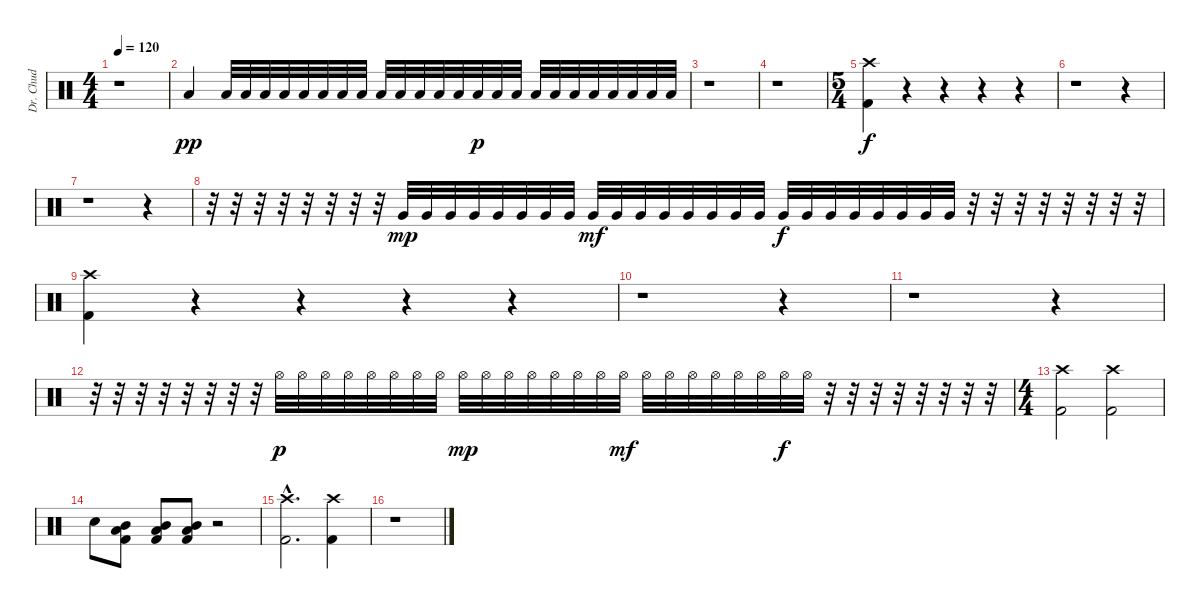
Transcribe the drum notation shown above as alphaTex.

\track ("Dr. Chud" "Dr. Chud") {instrument percussion}
\staff {score}
\articulation defaults
\ts (4 4)
\tempo 120
\clef neutral
\ks c
r.1{dy pp} |
"Low Tom (hit)".4 "Low Tom (hit)".32 "Low Tom (hit)".32 "Low Tom (hit)".32 "Low Tom (hit)".32 "Low Tom (hit)".32 "Low Tom (hit)".32 "Low Tom (hit)".32 "Low Tom (hit)".32 "Low Tom (hit)".32 "Low Tom (hit)".32 "Low Tom (hit)".32 "Low Tom (hit)".32 "Low Tom (hit)".32 "Low Tom (hit)".32{dy p} "Low Tom (hit)".32 "Low Tom (hit)".32 "Low Tom (hit)".32 "Low Tom (hit)".32 "Low Tom (hit)".32 "Low Tom (hit)".32 "Low Tom (hit)".32 "Low Tom (hit)".32 "Low Tom (hit)".32 "Low Tom (hit)".32 |
r.1 |
r.1 |
\ts (5 4)
("Crash high (hit)" "Kick (hit) 2").4{dy f} r.4 r.4 r.4 r.4 |
r.1 r.4 |
r.1 r.4 |
r.32 r.32 r.32 r.32 r.32 r.32 r.32 r.32 "Very Low Tom (hit)".32{dy mp} "Very Low Tom (hit)".32 "Very Low Tom (hit)".32 "Very Low Tom (hit)".32 "Very Low Tom (hit)".32 "Very Low Tom (hit)".32 "Very Low Tom (hit)".32 "Very Low Tom (hit)".32 "Very Low Tom (hit)".32{dy mf} "Very Low Tom (hit)".32 "Very Low Tom (hit)".32 "Very Low Tom (hit)".32 "Very Low Tom (hit)".32 "Very Low Tom (hit)".32 "Very Low Tom (hit)".32 "Very Low Tom (hit)".32 "Very Low Tom (hit)".32{dy f} "Very Low Tom (hit)".32 "Very Low Tom (hit)".32 "Very Low Tom (hit)".32 "Very Low Tom (hit)".32 "Very Low Tom (hit)".32 "Very Low Tom (hit)".32 "Very Low Tom (hit)".32 r.32 r.32 r.32 r.32 r.32 r.32 r.32 r.32 |
("Crash high (hit)" "Kick (hit) 2").4 r.4 r.4 r.4 r.4 |
r.1 r.4 |
r.1 r.4 |
r.32 r.32 r.32 r.32 r.32 r.32 r.32 r.32 "Hi-Hat (open)".32{dy p} "Hi-Hat (open)".32 "Hi-Hat (open)".32 "Hi-Hat (open)".32 "Hi-Hat (open)".32 "Hi-Hat (open)".32 "Hi-Hat (open)".32 "Hi-Hat (open)".32 "Hi-Hat (open)".32{dy mp} "Hi-Hat (open)".32 "Hi-Hat (open)".32 "Hi-Hat (open)".32 "Hi-Hat (open)".32 "Hi-Hat (open)".32 "Hi-Hat (open)".32 "Hi-Hat (open)".32{dy mf} "Hi-Hat (open)".32 "Hi-Hat (open)".32 "Hi-Hat (open)".32 "Hi-Hat (open)".32 "Hi-Hat (open)".32 "Hi-Hat (open)".32 "Hi-Hat (open)".32{dy f} "Hi-Hat (open)".32 r.32 r.32 r.32 r.32 r.32 r.32 r.32 r.32 |
\ts (4 4)
("Crash high (hit)" "Kick (hit) 2").2 ("Crash high (hit)" "Kick (hit) 2").2 |
"Electric Snare (hit)".8 ("Mid Tom (hit)" "Low Tom (hit)" "Kick (hit) 2").8 ("Mid Tom (hit)" "Low Tom (hit)" "Kick (hit) 2").8 ("Mid Tom (hit)" "Low Tom (hit)" "Kick (hit) 2").8 r.2 |
("Crash high (hit)"{hac} "Kick (hit) 2"{hac}).2{d} ("Crash high (hit)" "Kick (hit) 2").4 |
r.1
